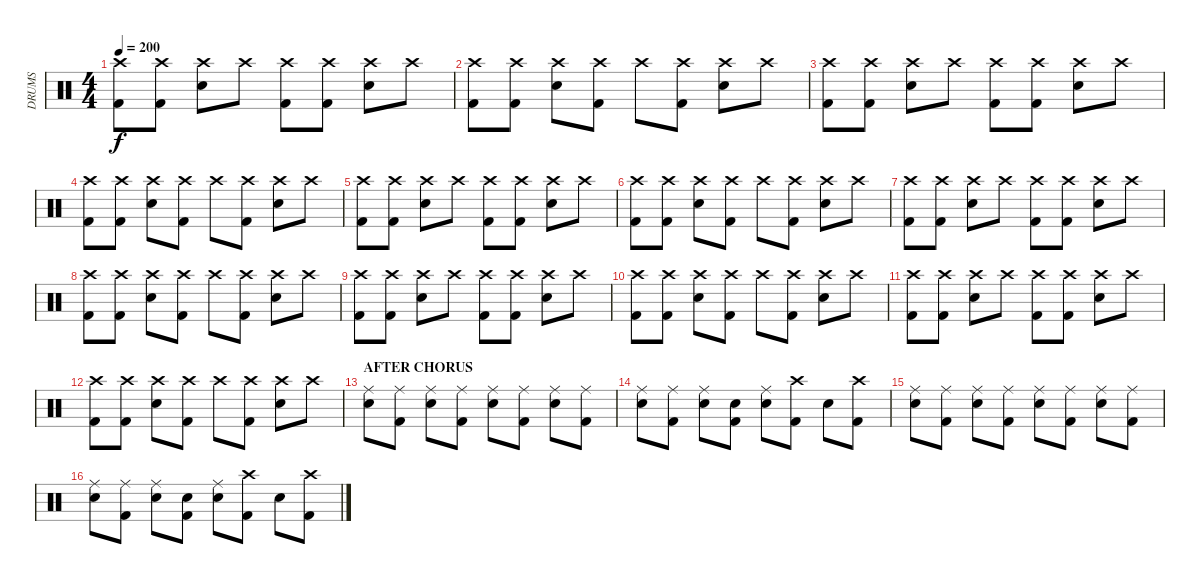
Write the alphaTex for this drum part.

\track ("DRUMS" "DRUMS") {instrument percussion}
\staff {score}
\articulation defaults
\ts (4 4)
\tempo 200
\clef neutral
\ks c
("Crash high (hit)" "Kick (hit) 2").8{dy f} ("Crash high (hit)" "Kick (hit) 2").8 ("Crash high (hit)" "Snare (hit) 2").8 "Crash high (hit)".8 ("Crash high (hit)" "Kick (hit) 2").8 ("Crash high (hit)" "Kick (hit) 2").8 ("Crash high (hit)" "Snare (hit) 2").8 "Crash high (hit)".8 |
("Crash high (hit)" "Kick (hit) 2").8 ("Crash high (hit)" "Kick (hit) 2").8 ("Crash high (hit)" "Snare (hit) 2").8 ("Crash high (hit)" "Kick (hit) 2").8 "Crash high (hit)".8 ("Crash high (hit)" "Kick (hit) 2").8 ("Crash high (hit)" "Snare (hit) 2").8 "Crash high (hit)".8 |
("Crash high (hit)" "Kick (hit) 2").8 ("Crash high (hit)" "Kick (hit) 2").8 ("Crash high (hit)" "Snare (hit) 2").8 "Crash high (hit)".8 ("Crash high (hit)" "Kick (hit) 2").8 ("Crash high (hit)" "Kick (hit) 2").8 ("Crash high (hit)" "Snare (hit) 2").8 "Crash high (hit)".8 |
("Crash high (hit)" "Kick (hit) 2").8 ("Crash high (hit)" "Kick (hit) 2").8 ("Crash high (hit)" "Snare (hit) 2").8 ("Crash high (hit)" "Kick (hit) 2").8 "Crash high (hit)".8 ("Crash high (hit)" "Kick (hit) 2").8 ("Crash high (hit)" "Snare (hit) 2").8 "Crash high (hit)".8 |
("Crash high (hit)" "Kick (hit) 2").8 ("Crash high (hit)" "Kick (hit) 2").8 ("Crash high (hit)" "Snare (hit) 2").8 "Crash high (hit)".8 ("Crash high (hit)" "Kick (hit) 2").8 ("Crash high (hit)" "Kick (hit) 2").8 ("Crash high (hit)" "Snare (hit) 2").8 "Crash high (hit)".8 |
("Crash high (hit)" "Kick (hit) 2").8 ("Crash high (hit)" "Kick (hit) 2").8 ("Crash high (hit)" "Snare (hit) 2").8 ("Crash high (hit)" "Kick (hit) 2").8 "Crash high (hit)".8 ("Crash high (hit)" "Kick (hit) 2").8 ("Crash high (hit)" "Snare (hit) 2").8 "Crash high (hit)".8 |
("Crash high (hit)" "Kick (hit) 2").8 ("Crash high (hit)" "Kick (hit) 2").8 ("Crash high (hit)" "Snare (hit) 2").8 "Crash high (hit)".8 ("Crash high (hit)" "Kick (hit) 2").8 ("Crash high (hit)" "Kick (hit) 2").8 ("Crash high (hit)" "Snare (hit) 2").8 "Crash high (hit)".8 |
("Crash high (hit)" "Kick (hit) 2").8 ("Crash high (hit)" "Kick (hit) 2").8 ("Crash high (hit)" "Snare (hit) 2").8 ("Crash high (hit)" "Kick (hit) 2").8 "Crash high (hit)".8 ("Crash high (hit)" "Kick (hit) 2").8 ("Crash high (hit)" "Snare (hit) 2").8 "Crash high (hit)".8 |
("Crash high (hit)" "Kick (hit) 2").8 ("Crash high (hit)" "Kick (hit) 2").8 ("Crash high (hit)" "Snare (hit) 2").8 "Crash high (hit)".8 ("Crash high (hit)" "Kick (hit) 2").8 ("Crash high (hit)" "Kick (hit) 2").8 ("Crash high (hit)" "Snare (hit) 2").8 "Crash high (hit)".8 |
("Crash high (hit)" "Kick (hit) 2").8 ("Crash high (hit)" "Kick (hit) 2").8 ("Crash high (hit)" "Snare (hit) 2").8 ("Crash high (hit)" "Kick (hit) 2").8 "Crash high (hit)".8 ("Crash high (hit)" "Kick (hit) 2").8 ("Crash high (hit)" "Snare (hit) 2").8 "Crash high (hit)".8 |
("Crash high (hit)" "Kick (hit) 2").8 ("Crash high (hit)" "Kick (hit) 2").8 ("Crash high (hit)" "Snare (hit) 2").8 "Crash high (hit)".8 ("Crash high (hit)" "Kick (hit) 2").8 ("Crash high (hit)" "Kick (hit) 2").8 ("Crash high (hit)" "Snare (hit) 2").8 "Crash high (hit)".8 |
("Crash high (hit)" "Kick (hit) 2").8 ("Crash high (hit)" "Kick (hit) 2").8 ("Crash high (hit)" "Snare (hit) 2").8 ("Crash high (hit)" "Kick (hit) 2").8 "Crash high (hit)".8 ("Crash high (hit)" "Kick (hit) 2").8 ("Crash high (hit)" "Snare (hit) 2").8 "Crash high (hit)".8 |
\section ("" "AFTER CHORUS")
("Ride (middle)" "Snare (hit) 2").8 ("Ride (middle)" "Kick (hit) 2").8 ("Ride (middle)" "Snare (hit) 2").8 ("Ride (middle)" "Kick (hit) 2").8 ("Ride (middle)" "Snare (hit) 2").8 ("Ride (middle)" "Kick (hit) 2").8 ("Ride (middle)" "Snare (hit) 2").8 ("Ride (middle)" "Kick (hit) 2").8 |
("Ride (middle)" "Snare (hit) 2").8 ("Ride (middle)" "Kick (hit) 2").8 ("Ride (middle)" "Snare (hit) 2").8 ("Snare (hit)" "Kick (hit) 2").8 ("Ride (middle)" "Snare (hit) 2").8 ("Crash high (hit)" "Kick (hit) 2").8 "Snare (hit) 2".8 ("Crash high (hit)" "Kick (hit) 2").8 |
("Ride (middle)" "Snare (hit) 2").8 ("Ride (middle)" "Kick (hit) 2").8 ("Ride (middle)" "Snare (hit) 2").8 ("Ride (middle)" "Kick (hit) 2").8 ("Ride (middle)" "Snare (hit) 2").8 ("Ride (middle)" "Kick (hit) 2").8 ("Ride (middle)" "Snare (hit) 2").8 ("Ride (middle)" "Kick (hit) 2").8 |
("Ride (middle)" "Snare (hit) 2").8 ("Ride (middle)" "Kick (hit) 2").8 ("Ride (middle)" "Snare (hit) 2").8 ("Snare (hit)" "Kick (hit) 2").8 ("Ride (middle)" "Snare (hit) 2").8 ("Crash high (hit)" "Kick (hit) 2").8 "Snare (hit) 2".8 ("Crash high (hit)" "Kick (hit) 2").8
